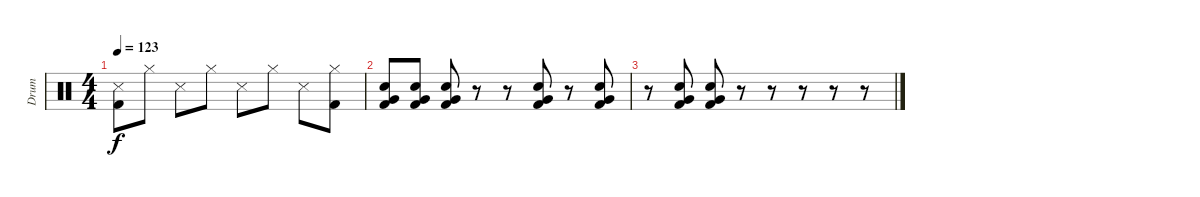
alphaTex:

\track ("Drum" "Drum") {instrument percussion}
\staff {score}
\articulation defaults
\ts (4 4)
\tempo 123
\clef neutral
\ks c
("Snare (side stick) 3" "Kick (hit) 2").8{dy f} "Hi-Hat (closed)".8 "Snare (side stick) 3".8 "Hi-Hat (closed)".8 "Snare (side stick) 3".8 "Hi-Hat (closed)".8 "Snare (side stick) 3".8 ("Hi-Hat (closed)" "Kick (hit) 2").8 |
("Electric Snare (hit)" "Very Low Tom (hit)" "Kick (hit) 2").8 ("Electric Snare (hit)" "Very Low Tom (hit)" "Kick (hit) 2").8 ("Electric Snare (hit)" "Very Low Tom (hit)" "Kick (hit) 2").8 r.8 r.8 ("Electric Snare (hit)" "Very Low Tom (hit)" "Kick (hit) 2").8 r.8 ("Electric Snare (hit)" "Very Low Tom (hit)" "Kick (hit) 2").8 |
r.8 ("Electric Snare (hit)" "Very Low Tom (hit)" "Kick (hit) 2").8 ("Electric Snare (hit)" "Very Low Tom (hit)" "Kick (hit) 2").8 r.8 r.8 r.8 r.8 r.8
